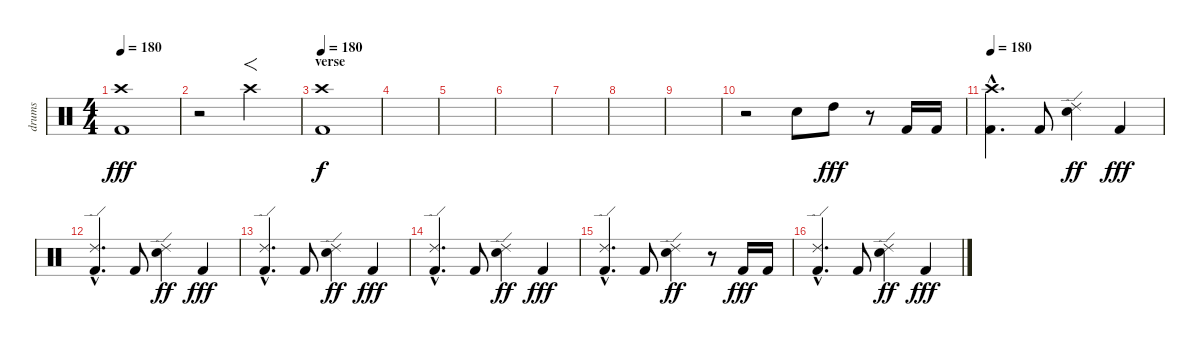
\track ("drums" "drums") {instrument percussion}
\staff {score}
\articulation defaults
\ts (4 4)
\tempo 180
\clef neutral
\ks c
("Crash high (hit)" "Kick (hit) 2").1{dy fff} |
r.2 "Crash high (hit)".2{f} |
\section ("" "verse")
\tempo 180
("Crash high (hit)" "Kick (hit) 2").1{dy f} |
|
|
|
|
|
|
r.2 "Snare (hit) 2".8 "High Tom (hit)".8{dy fff} r.8 "Kick (hit) 2".16 "Kick (hit) 2".16 |
\tempo 180
("Crash high (hit)"{hac} "Kick (hit) 2"{hac}).4{d} "Kick (hit) 2".8 ("Ride (edge) 2" "Snare (hit) 2").4{dy ff} "Kick (hit) 2".4{dy fff} |
("Ride (edge) 2"{hac} "Kick (hit) 2"{hac}).4{d} "Kick (hit) 2".8 ("Ride (edge) 2" "Snare (hit) 2").4{dy ff} "Kick (hit) 2".4{dy fff} |
("Ride (edge) 2"{hac} "Kick (hit) 2"{hac}).4{d} "Kick (hit) 2".8 ("Ride (edge) 2" "Snare (hit) 2").4{dy ff} "Kick (hit) 2".4{dy fff} |
("Ride (edge) 2"{hac} "Kick (hit) 2"{hac}).4{d} "Kick (hit) 2".8 ("Ride (edge) 2" "Snare (hit) 2").4{dy ff} "Kick (hit) 2".4{dy fff} |
("Ride (edge) 2"{hac} "Kick (hit) 2"{hac}).4{d} "Kick (hit) 2".8 ("Ride (edge) 2" "Snare (hit) 2").4{dy ff} r.8 "Kick (hit) 2".16{dy fff} "Kick (hit) 2".16 |
("Ride (edge) 2"{hac} "Kick (hit) 2"{hac}).4{d} "Kick (hit) 2".8 ("Ride (edge) 2" "Snare (hit) 2").4{dy ff} "Kick (hit) 2".4{dy fff}
